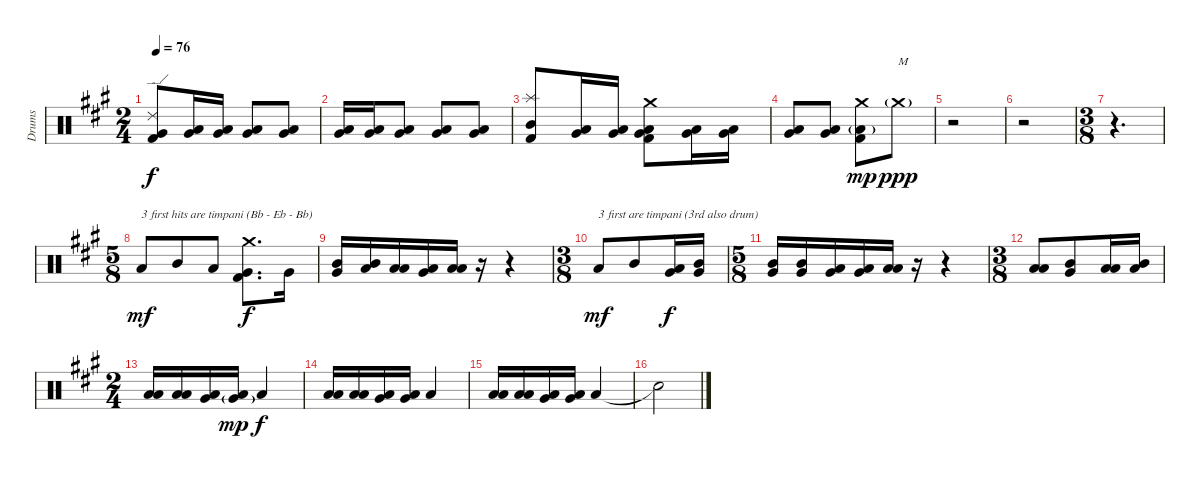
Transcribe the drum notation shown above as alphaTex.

\track ("Drums" "Drums") {instrument percussion}
\staff {score}
\articulation defaults
\ts (2 4)
\tempo 76
\clef neutral
\ks a
("Ride (edge) 2" "Very Low Tom (hit)" "Kick (hit) 2").8{dy f} ("Low Tom (hit)" "Very Low Tom (hit)").16 ("Low Tom (hit)" "Very Low Tom (hit)").16 ("Low Tom (hit)" "Very Low Tom (hit)").8 ("Very Low Tom (hit)" "Low Floor Tom (hit)").8 |
("Low Tom (hit)" "Very Low Tom (hit)").16 ("Low Tom (hit)" "Very Low Tom (hit)").16 ("Low Tom (hit)" "Very Low Tom (hit)").8 ("Very Low Tom (hit)" "Low Floor Tom (hit)").8 ("Low Tom (hit)" "Very Low Tom (hit)").8 |
("Splash (hit)" "Mid Tom (hit)" "Kick (hit) 2").8 ("Low Tom (hit)" "Very Low Tom (hit)").16 ("Low Tom (hit)" "Very Low Tom (hit)").16 ("Crash medium (hit)" "Very Low Tom (hit)" "Low Floor Tom (hit)" "Kick (hit) 2").8 ("Low Tom (hit)" "Very Low Tom (hit)").16 ("Low Tom (hit)" "Very Low Tom (hit)").16 |
("Low Tom (hit)" "Very Low Tom (hit)").8 ("Low Tom (hit)" "Very Low Tom (hit)").8 ("Crash medium (hit)" "Low Floor Tom (hit)"{g} "Kick (hit) 2").8{dy mp} "Crash medium (hit)"{g}.8{txt "M" dy ppp} |
r.2 |
r.2 |
\ts (3 8)
r.4{d} |
\ts (5 8)
"Low Tom (hit)".8{txt "3 first hits are timpani (Bb - Eb - Bb)" dy mf} "Mid Tom (hit)".8 "Low Tom (hit)".8 ("Crash medium (hit)" "Very Low Tom (hit)" "Kick (hit) 2").8{d dy f} "Very Low Tom (hit)".16 |
("Mid Tom (hit)" "Very Low Tom (hit)").16 ("Mid Tom (hit)" "Low Tom (hit)").16 ("Low Tom (hit)" "Low Tom (hit)").16 ("Low Tom (hit)" "Very Low Tom (hit)").16 ("Low Tom (hit)" "Low Floor Tom (hit)").16 r.16 r.4 |
\ts (3 8)
"Low Tom (hit)".8{txt "3 first are timpani (3rd also drum)" dy mf} "Mid Tom (hit)".8 ("Low Tom (hit)" "Very Low Tom (hit)").16{dy f} ("Mid Tom (hit)" "Very Low Tom (hit)").16 |
\ts (5 8)
("Mid Tom (hit)" "Very Low Tom (hit)").16 ("Mid Tom (hit)" "Very Low Tom (hit)").16 ("Low Tom (hit)" "Very Low Tom (hit)").16 ("Low Tom (hit)" "Very Low Tom (hit)").16 ("Low Tom (hit)" "Low Floor Tom (hit)").16 r.16 r.4 |
\ts (3 8)
("Low Tom (hit)" "Low Tom (hit)").8 ("Very Low Tom (hit)" "Mid Tom (hit)").8 ("Low Tom (hit)" "Low Tom (hit)").16 ("Low Tom (hit)" "Mid Tom (hit)").16 |
\ts (2 4)
("Low Tom (hit)" "Low Tom (hit)").16 ("Low Tom (hit)" "Low Tom (hit)").16 ("Low Tom (hit)" "Very Low Tom (hit)").16 ("Low Tom (hit)" "Very Low Tom (hit)"{g}).16{dy mp} "Low Floor Tom (hit)".4{dy f} |
("Low Tom (hit)" "Low Tom (hit)").16 ("Low Tom (hit)" "Low Tom (hit)").16 ("Low Tom (hit)" "Very Low Tom (hit)").16 ("Low Tom (hit)" "Very Low Tom (hit)").16 "Low Floor Tom (hit)".4 |
("Low Tom (hit)" "Low Tom (hit)").16 ("Low Tom (hit)" "Low Tom (hit)").16 ("Low Tom (hit)" "Very Low Tom (hit)").16 ("Low Tom (hit)" "Very Low Tom (hit)").16 "Low Floor Tom (hit)".4 |
"Snare (hit)"{t}.2
